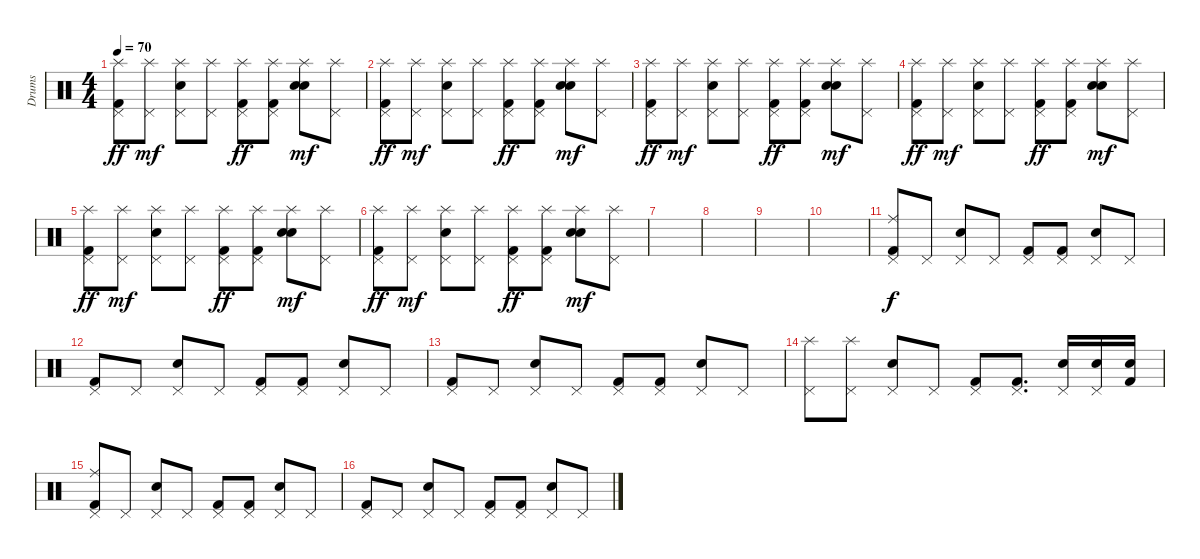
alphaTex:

\track ("Drums" "Drums") {instrument percussion}
\staff {score}
\articulation defaults
\ts (4 4)
\tempo 70
\clef neutral
\ks c
("Splash (hit)" "Pedal Hi-Hat (hit)" "Kick (hit) 2").8{dy ff} ("Splash (hit)" "Pedal Hi-Hat (hit)").8{dy mf} ("Splash (hit)" "Pedal Hi-Hat (hit)" "Snare (hit) 2").8 ("Splash (hit)" "Pedal Hi-Hat (hit)").8 ("Splash (hit)" "Pedal Hi-Hat (hit)" "Kick (hit) 2").8{dy ff} ("Splash (hit)" "Pedal Hi-Hat (hit)" "Kick (hit) 2").8 ("Splash (hit)" "Electric Snare (hit)" "Snare (hit) 2").8{dy mf} ("Splash (hit)" "Pedal Hi-Hat (hit)").8 |
("Splash (hit)" "Pedal Hi-Hat (hit)" "Kick (hit) 2").8{dy ff} ("Splash (hit)" "Pedal Hi-Hat (hit)").8{dy mf} ("Splash (hit)" "Pedal Hi-Hat (hit)" "Snare (hit) 2").8 ("Splash (hit)" "Pedal Hi-Hat (hit)").8 ("Splash (hit)" "Pedal Hi-Hat (hit)" "Kick (hit) 2").8{dy ff} ("Splash (hit)" "Pedal Hi-Hat (hit)" "Kick (hit) 2").8 ("Splash (hit)" "Electric Snare (hit)" "Snare (hit) 2").8{dy mf} ("Splash (hit)" "Pedal Hi-Hat (hit)").8 |
("Splash (hit)" "Pedal Hi-Hat (hit)" "Kick (hit) 2").8{dy ff} ("Splash (hit)" "Pedal Hi-Hat (hit)").8{dy mf} ("Splash (hit)" "Pedal Hi-Hat (hit)" "Snare (hit) 2").8 ("Splash (hit)" "Pedal Hi-Hat (hit)").8 ("Splash (hit)" "Pedal Hi-Hat (hit)" "Kick (hit) 2").8{dy ff} ("Splash (hit)" "Pedal Hi-Hat (hit)" "Kick (hit) 2").8 ("Splash (hit)" "Electric Snare (hit)" "Snare (hit) 2").8{dy mf} ("Splash (hit)" "Pedal Hi-Hat (hit)").8 |
("Splash (hit)" "Pedal Hi-Hat (hit)" "Kick (hit) 2").8{dy ff} ("Splash (hit)" "Pedal Hi-Hat (hit)").8{dy mf} ("Splash (hit)" "Pedal Hi-Hat (hit)" "Snare (hit) 2").8 ("Splash (hit)" "Pedal Hi-Hat (hit)").8 ("Splash (hit)" "Pedal Hi-Hat (hit)" "Kick (hit) 2").8{dy ff} ("Splash (hit)" "Pedal Hi-Hat (hit)" "Kick (hit) 2").8 ("Splash (hit)" "Electric Snare (hit)" "Snare (hit) 2").8{dy mf} ("Splash (hit)" "Pedal Hi-Hat (hit)").8 |
("Splash (hit)" "Pedal Hi-Hat (hit)" "Kick (hit) 2").8{dy ff} ("Splash (hit)" "Pedal Hi-Hat (hit)").8{dy mf} ("Splash (hit)" "Pedal Hi-Hat (hit)" "Snare (hit) 2").8 ("Splash (hit)" "Pedal Hi-Hat (hit)").8 ("Splash (hit)" "Pedal Hi-Hat (hit)" "Kick (hit) 2").8{dy ff} ("Splash (hit)" "Pedal Hi-Hat (hit)" "Kick (hit) 2").8 ("Splash (hit)" "Electric Snare (hit)" "Snare (hit) 2").8{dy mf} ("Splash (hit)" "Pedal Hi-Hat (hit)").8 |
("Splash (hit)" "Pedal Hi-Hat (hit)" "Kick (hit) 2").8{dy ff} ("Splash (hit)" "Pedal Hi-Hat (hit)").8{dy mf} ("Splash (hit)" "Pedal Hi-Hat (hit)" "Snare (hit) 2").8 ("Splash (hit)" "Pedal Hi-Hat (hit)").8 ("Splash (hit)" "Pedal Hi-Hat (hit)" "Kick (hit) 2").8{dy ff} ("Splash (hit)" "Pedal Hi-Hat (hit)" "Kick (hit) 2").8 ("Splash (hit)" "Electric Snare (hit)" "Snare (hit) 2").8{dy mf} ("Splash (hit)" "Pedal Hi-Hat (hit)").8 |
|
|
|
|
("Pedal Hi-Hat (hit)" "Ride (middle)" "Kick (hit) 2").8{dy f} "Pedal Hi-Hat (hit)".8 ("Pedal Hi-Hat (hit)" "Snare (hit) 2").8 "Pedal Hi-Hat (hit)".8 ("Pedal Hi-Hat (hit)" "Kick (hit) 2").8 ("Pedal Hi-Hat (hit)" "Kick (hit) 2").8 ("Pedal Hi-Hat (hit)" "Snare (hit) 2").8 "Pedal Hi-Hat (hit)".8 |
("Pedal Hi-Hat (hit)" "Kick (hit) 2").8 "Pedal Hi-Hat (hit)".8 ("Pedal Hi-Hat (hit)" "Snare (hit) 2").8 "Pedal Hi-Hat (hit)".8 ("Pedal Hi-Hat (hit)" "Kick (hit) 2").8 ("Pedal Hi-Hat (hit)" "Kick (hit) 2").8 ("Pedal Hi-Hat (hit)" "Snare (hit) 2").8 "Pedal Hi-Hat (hit)".8 |
("Pedal Hi-Hat (hit)" "Kick (hit) 2").8 "Pedal Hi-Hat (hit)".8 ("Pedal Hi-Hat (hit)" "Snare (hit) 2").8 "Pedal Hi-Hat (hit)".8 ("Pedal Hi-Hat (hit)" "Kick (hit) 2").8 ("Pedal Hi-Hat (hit)" "Kick (hit) 2").8 ("Pedal Hi-Hat (hit)" "Snare (hit) 2").8 "Pedal Hi-Hat (hit)".8 |
("Splash (hit)" "Pedal Hi-Hat (hit)").8 ("Splash (hit)" "Pedal Hi-Hat (hit)").8 ("Pedal Hi-Hat (hit)" "Electric Snare (hit)").8 "Pedal Hi-Hat (hit)".8 ("Pedal Hi-Hat (hit)" "Kick (hit) 2").8 ("Pedal Hi-Hat (hit)" "Kick (hit) 2").8{d} ("Pedal Hi-Hat (hit)" "Snare (hit) 2").16 ("Pedal Hi-Hat (hit)" "Electric Snare (hit)").16 ("Kick (hit) 2" "Electric Snare (hit)").16 |
("Ride (middle)" "Pedal Hi-Hat (hit)" "Kick (hit) 2").8 "Pedal Hi-Hat (hit)".8 ("Pedal Hi-Hat (hit)" "Snare (hit) 2").8 "Pedal Hi-Hat (hit)".8 ("Pedal Hi-Hat (hit)" "Kick (hit) 2").8 ("Pedal Hi-Hat (hit)" "Kick (hit) 2").8 ("Pedal Hi-Hat (hit)" "Snare (hit) 2").8 "Pedal Hi-Hat (hit)".8 |
("Pedal Hi-Hat (hit)" "Kick (hit) 2").8 "Pedal Hi-Hat (hit)".8 ("Pedal Hi-Hat (hit)" "Snare (hit) 2").8 "Pedal Hi-Hat (hit)".8 ("Pedal Hi-Hat (hit)" "Kick (hit) 2").8 ("Pedal Hi-Hat (hit)" "Kick (hit) 2").8 ("Pedal Hi-Hat (hit)" "Snare (hit) 2").8 "Pedal Hi-Hat (hit)".8
